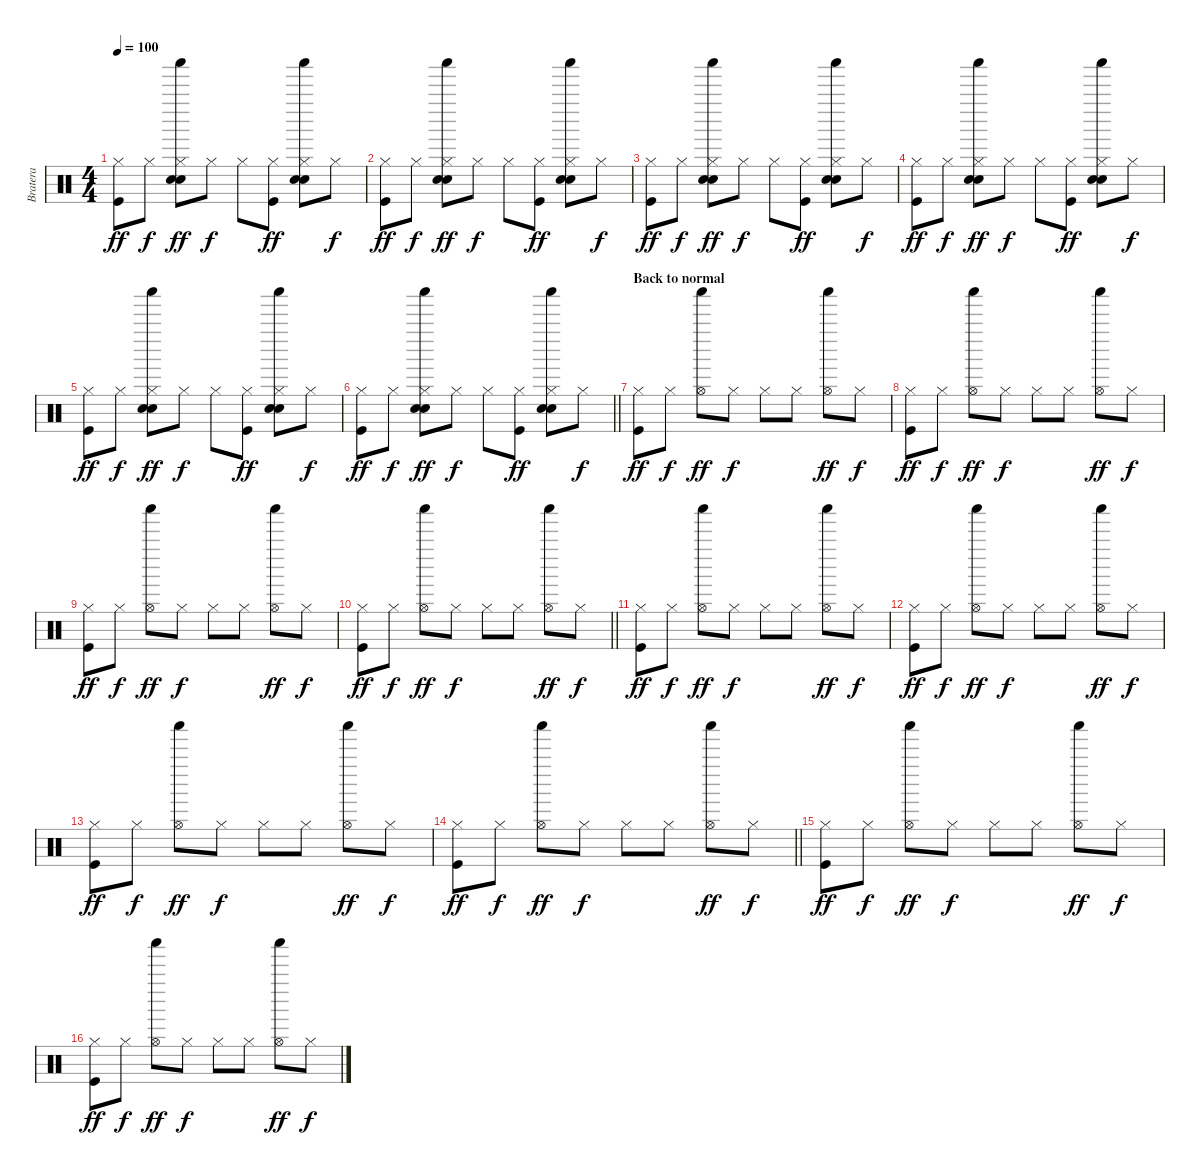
\track ("Bratera" "Bratera") {instrument percussion}
\staff {score}
\articulation defaults
\ts (4 4)
\tempo 100
\clef neutral
\ks c
("Hi-Hat (closed)" "Kick (hit)").8{dy ff} "Hi-Hat (closed)".8{dy f} ("Hi-Hat (closed)" "Shaker (hit)" "Snare (hit) 2" "Electric Snare (hit)").8{dy ff} "Hi-Hat (closed)".8{dy f} "Hi-Hat (closed)".8 ("Hi-Hat (closed)" "Kick (hit)").8{dy ff} ("Hi-Hat (closed)" "Shaker (hit)" "Snare (hit) 2" "Electric Snare (hit)").8 "Hi-Hat (closed)".8{dy f} |
("Hi-Hat (closed)" "Kick (hit)").8{dy ff} "Hi-Hat (closed)".8{dy f} ("Hi-Hat (closed)" "Shaker (hit)" "Snare (hit) 2" "Electric Snare (hit)").8{dy ff} "Hi-Hat (closed)".8{dy f} "Hi-Hat (closed)".8 ("Hi-Hat (closed)" "Kick (hit)").8{dy ff} ("Hi-Hat (closed)" "Shaker (hit)" "Snare (hit) 2" "Electric Snare (hit)").8 "Hi-Hat (closed)".8{dy f} |
("Hi-Hat (closed)" "Kick (hit)").8{dy ff} "Hi-Hat (closed)".8{dy f} ("Hi-Hat (closed)" "Shaker (hit)" "Snare (hit) 2" "Electric Snare (hit)").8{dy ff} "Hi-Hat (closed)".8{dy f} "Hi-Hat (closed)".8 ("Hi-Hat (closed)" "Kick (hit)").8{dy ff} ("Hi-Hat (closed)" "Shaker (hit)" "Snare (hit) 2" "Electric Snare (hit)").8 "Hi-Hat (closed)".8{dy f} |
("Hi-Hat (closed)" "Kick (hit)").8{dy ff} "Hi-Hat (closed)".8{dy f} ("Hi-Hat (closed)" "Shaker (hit)" "Snare (hit) 2" "Electric Snare (hit)").8{dy ff} "Hi-Hat (closed)".8{dy f} "Hi-Hat (closed)".8 ("Hi-Hat (closed)" "Kick (hit)").8{dy ff} ("Hi-Hat (closed)" "Shaker (hit)" "Snare (hit) 2" "Electric Snare (hit)").8 "Hi-Hat (closed)".8{dy f} |
("Hi-Hat (closed)" "Kick (hit)").8{dy ff} "Hi-Hat (closed)".8{dy f} ("Hi-Hat (closed)" "Shaker (hit)" "Snare (hit) 2" "Electric Snare (hit)").8{dy ff} "Hi-Hat (closed)".8{dy f} "Hi-Hat (closed)".8 ("Hi-Hat (closed)" "Kick (hit)").8{dy ff} ("Hi-Hat (closed)" "Shaker (hit)" "Snare (hit) 2" "Electric Snare (hit)").8 "Hi-Hat (closed)".8{dy f} |
\barLineRight lightlight
("Hi-Hat (closed)" "Kick (hit)").8{dy ff} "Hi-Hat (closed)".8{dy f} ("Hi-Hat (closed)" "Shaker (hit)" "Snare (hit) 2" "Electric Snare (hit)").8{dy ff} "Hi-Hat (closed)".8{dy f} "Hi-Hat (closed)".8 ("Hi-Hat (closed)" "Kick (hit)").8{dy ff} ("Hi-Hat (closed)" "Shaker (hit)" "Snare (hit) 2" "Electric Snare (hit)").8 "Hi-Hat (closed)".8{dy f} |
\section ("" "Back to normal")
("Hi-Hat (closed)" "Kick (hit)").8{dy ff} "Hi-Hat (closed)".8{dy f} ("Hi-Hat (open)" "Shaker (hit)").8{dy ff} "Hi-Hat (closed)".8{dy f} "Hi-Hat (closed)".8 "Hi-Hat (closed)".8 ("Hi-Hat (open)" "Shaker (hit)").8{dy ff} "Hi-Hat (closed)".8{dy f} |
("Hi-Hat (closed)" "Kick (hit)").8{dy ff} "Hi-Hat (closed)".8{dy f} ("Hi-Hat (open)" "Shaker (hit)").8{dy ff} "Hi-Hat (closed)".8{dy f} "Hi-Hat (closed)".8 "Hi-Hat (closed)".8 ("Hi-Hat (open)" "Shaker (hit)").8{dy ff} "Hi-Hat (closed)".8{dy f} |
("Hi-Hat (closed)" "Kick (hit)").8{dy ff} "Hi-Hat (closed)".8{dy f} ("Hi-Hat (open)" "Shaker (hit)").8{dy ff} "Hi-Hat (closed)".8{dy f} "Hi-Hat (closed)".8 "Hi-Hat (closed)".8 ("Hi-Hat (open)" "Shaker (hit)").8{dy ff} "Hi-Hat (closed)".8{dy f} |
\barLineRight lightlight
("Hi-Hat (closed)" "Kick (hit)").8{dy ff} "Hi-Hat (closed)".8{dy f} ("Hi-Hat (open)" "Shaker (hit)").8{dy ff} "Hi-Hat (closed)".8{dy f} "Hi-Hat (closed)".8 "Hi-Hat (closed)".8 ("Hi-Hat (open)" "Shaker (hit)").8{dy ff} "Hi-Hat (closed)".8{dy f} |
("Hi-Hat (closed)" "Kick (hit)").8{dy ff} "Hi-Hat (closed)".8{dy f} ("Hi-Hat (open)" "Shaker (hit)").8{dy ff} "Hi-Hat (closed)".8{dy f} "Hi-Hat (closed)".8 "Hi-Hat (closed)".8 ("Hi-Hat (open)" "Shaker (hit)").8{dy ff} "Hi-Hat (closed)".8{dy f} |
("Hi-Hat (closed)" "Kick (hit)").8{dy ff} "Hi-Hat (closed)".8{dy f} ("Hi-Hat (open)" "Shaker (hit)").8{dy ff} "Hi-Hat (closed)".8{dy f} "Hi-Hat (closed)".8 "Hi-Hat (closed)".8 ("Hi-Hat (open)" "Shaker (hit)").8{dy ff} "Hi-Hat (closed)".8{dy f} |
("Hi-Hat (closed)" "Kick (hit)").8{dy ff} "Hi-Hat (closed)".8{dy f} ("Hi-Hat (open)" "Shaker (hit)").8{dy ff} "Hi-Hat (closed)".8{dy f} "Hi-Hat (closed)".8 "Hi-Hat (closed)".8 ("Hi-Hat (open)" "Shaker (hit)").8{dy ff} "Hi-Hat (closed)".8{dy f} |
\barLineRight lightlight
("Hi-Hat (closed)" "Kick (hit)").8{dy ff} "Hi-Hat (closed)".8{dy f} ("Hi-Hat (open)" "Shaker (hit)").8{dy ff} "Hi-Hat (closed)".8{dy f} "Hi-Hat (closed)".8 "Hi-Hat (closed)".8 ("Hi-Hat (open)" "Shaker (hit)").8{dy ff} "Hi-Hat (closed)".8{dy f} |
("Hi-Hat (closed)" "Kick (hit)").8{dy ff} "Hi-Hat (closed)".8{dy f} ("Hi-Hat (open)" "Shaker (hit)").8{dy ff} "Hi-Hat (closed)".8{dy f} "Hi-Hat (closed)".8 "Hi-Hat (closed)".8 ("Hi-Hat (open)" "Shaker (hit)").8{dy ff} "Hi-Hat (closed)".8{dy f} |
("Hi-Hat (closed)" "Kick (hit)").8{dy ff} "Hi-Hat (closed)".8{dy f} ("Hi-Hat (open)" "Shaker (hit)").8{dy ff} "Hi-Hat (closed)".8{dy f} "Hi-Hat (closed)".8 "Hi-Hat (closed)".8 ("Hi-Hat (open)" "Shaker (hit)").8{dy ff} "Hi-Hat (closed)".8{dy f}
